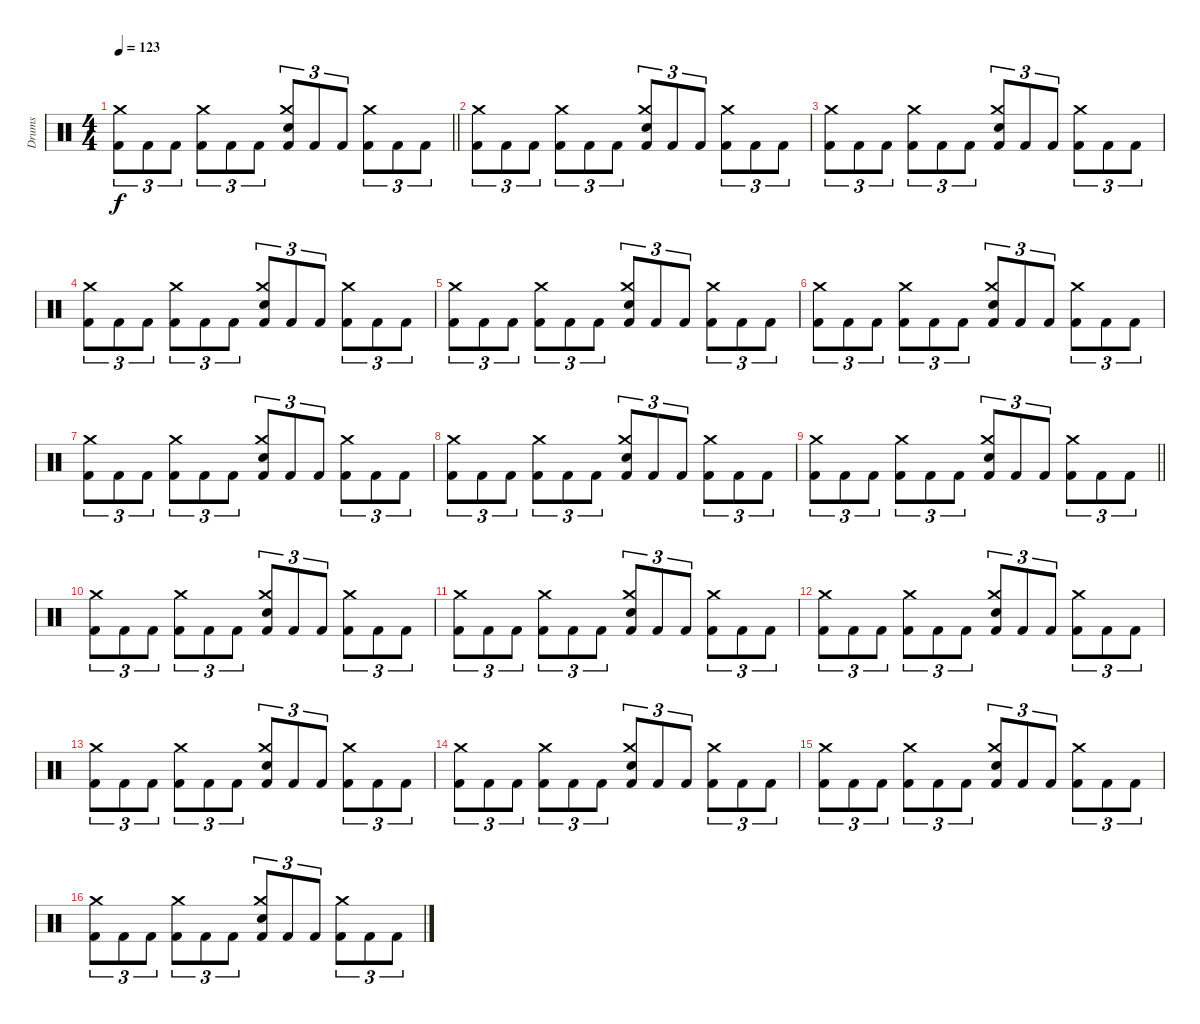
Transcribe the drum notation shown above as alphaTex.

\track ("Drums" "Drums") {instrument percussion}
\staff {score}
\articulation defaults
\ts (4 4)
\tempo 123
\clef neutral
\barLineRight lightlight
\ks c
("Kick (hit) 2" "Crash medium (hit)").8{tu (3 2) dy f} "Kick (hit) 2".8{tu (3 2)} "Kick (hit) 2".8{tu (3 2)} ("Kick (hit) 2" "Crash medium (hit)").8{tu (3 2)} "Kick (hit) 2".8{tu (3 2)} "Kick (hit) 2".8{tu (3 2)} ("Kick (hit) 2" "Snare (hit) 2" "Crash medium (hit)").8{tu (3 2)} "Kick (hit) 2".8{tu (3 2)} "Kick (hit) 2".8{tu (3 2)} ("Kick (hit) 2" "Crash medium (hit)").8{tu (3 2)} "Kick (hit) 2".8{tu (3 2)} "Kick (hit) 2".8{tu (3 2)} |
\section ("" "")
("Kick (hit) 2" "Crash medium (hit)").8{tu (3 2)} "Kick (hit) 2".8{tu (3 2)} "Kick (hit) 2".8{tu (3 2)} ("Kick (hit) 2" "Crash medium (hit)").8{tu (3 2)} "Kick (hit) 2".8{tu (3 2)} "Kick (hit) 2".8{tu (3 2)} ("Kick (hit) 2" "Snare (hit) 2" "Crash medium (hit)").8{tu (3 2)} "Kick (hit) 2".8{tu (3 2)} "Kick (hit) 2".8{tu (3 2)} ("Kick (hit) 2" "Crash medium (hit)").8{tu (3 2)} "Kick (hit) 2".8{tu (3 2)} "Kick (hit) 2".8{tu (3 2)} |
("Kick (hit) 2" "Crash medium (hit)").8{tu (3 2)} "Kick (hit) 2".8{tu (3 2)} "Kick (hit) 2".8{tu (3 2)} ("Kick (hit) 2" "Crash medium (hit)").8{tu (3 2)} "Kick (hit) 2".8{tu (3 2)} "Kick (hit) 2".8{tu (3 2)} ("Kick (hit) 2" "Snare (hit) 2" "Crash medium (hit)").8{tu (3 2)} "Kick (hit) 2".8{tu (3 2)} "Kick (hit) 2".8{tu (3 2)} ("Kick (hit) 2" "Crash medium (hit)").8{tu (3 2)} "Kick (hit) 2".8{tu (3 2)} "Kick (hit) 2".8{tu (3 2)} |
("Kick (hit) 2" "Crash medium (hit)").8{tu (3 2)} "Kick (hit) 2".8{tu (3 2)} "Kick (hit) 2".8{tu (3 2)} ("Kick (hit) 2" "Crash medium (hit)").8{tu (3 2)} "Kick (hit) 2".8{tu (3 2)} "Kick (hit) 2".8{tu (3 2)} ("Kick (hit) 2" "Snare (hit) 2" "Crash medium (hit)").8{tu (3 2)} "Kick (hit) 2".8{tu (3 2)} "Kick (hit) 2".8{tu (3 2)} ("Kick (hit) 2" "Crash medium (hit)").8{tu (3 2)} "Kick (hit) 2".8{tu (3 2)} "Kick (hit) 2".8{tu (3 2)} |
("Kick (hit) 2" "Crash medium (hit)").8{tu (3 2)} "Kick (hit) 2".8{tu (3 2)} "Kick (hit) 2".8{tu (3 2)} ("Kick (hit) 2" "Crash medium (hit)").8{tu (3 2)} "Kick (hit) 2".8{tu (3 2)} "Kick (hit) 2".8{tu (3 2)} ("Kick (hit) 2" "Snare (hit) 2" "Crash medium (hit)").8{tu (3 2)} "Kick (hit) 2".8{tu (3 2)} "Kick (hit) 2".8{tu (3 2)} ("Kick (hit) 2" "Crash medium (hit)").8{tu (3 2)} "Kick (hit) 2".8{tu (3 2)} "Kick (hit) 2".8{tu (3 2)} |
("Kick (hit) 2" "Crash medium (hit)").8{tu (3 2) volume 8} "Kick (hit) 2".8{tu (3 2)} "Kick (hit) 2".8{tu (3 2)} ("Kick (hit) 2" "Crash medium (hit)").8{tu (3 2)} "Kick (hit) 2".8{tu (3 2)} "Kick (hit) 2".8{tu (3 2)} ("Kick (hit) 2" "Snare (hit) 2" "Crash medium (hit)").8{tu (3 2)} "Kick (hit) 2".8{tu (3 2)} "Kick (hit) 2".8{tu (3 2)} ("Kick (hit) 2" "Crash medium (hit)").8{tu (3 2)} "Kick (hit) 2".8{tu (3 2)} "Kick (hit) 2".8{tu (3 2)} |
("Kick (hit) 2" "Crash medium (hit)").8{tu (3 2)} "Kick (hit) 2".8{tu (3 2)} "Kick (hit) 2".8{tu (3 2)} ("Kick (hit) 2" "Crash medium (hit)").8{tu (3 2)} "Kick (hit) 2".8{tu (3 2)} "Kick (hit) 2".8{tu (3 2)} ("Kick (hit) 2" "Snare (hit) 2" "Crash medium (hit)").8{tu (3 2)} "Kick (hit) 2".8{tu (3 2)} "Kick (hit) 2".8{tu (3 2)} ("Kick (hit) 2" "Crash medium (hit)").8{tu (3 2)} "Kick (hit) 2".8{tu (3 2)} "Kick (hit) 2".8{tu (3 2)} |
("Kick (hit) 2" "Crash medium (hit)").8{tu (3 2)} "Kick (hit) 2".8{tu (3 2)} "Kick (hit) 2".8{tu (3 2)} ("Kick (hit) 2" "Crash medium (hit)").8{tu (3 2)} "Kick (hit) 2".8{tu (3 2)} "Kick (hit) 2".8{tu (3 2)} ("Kick (hit) 2" "Snare (hit) 2" "Crash medium (hit)").8{tu (3 2)} "Kick (hit) 2".8{tu (3 2)} "Kick (hit) 2".8{tu (3 2)} ("Kick (hit) 2" "Crash medium (hit)").8{tu (3 2)} "Kick (hit) 2".8{tu (3 2)} "Kick (hit) 2".8{tu (3 2)} |
\barLineRight lightlight
("Kick (hit) 2" "Crash medium (hit)").8{tu (3 2)} "Kick (hit) 2".8{tu (3 2)} "Kick (hit) 2".8{tu (3 2)} ("Kick (hit) 2" "Crash medium (hit)").8{tu (3 2)} "Kick (hit) 2".8{tu (3 2)} "Kick (hit) 2".8{tu (3 2)} ("Kick (hit) 2" "Snare (hit) 2" "Crash medium (hit)").8{tu (3 2)} "Kick (hit) 2".8{tu (3 2)} "Kick (hit) 2".8{tu (3 2)} ("Kick (hit) 2" "Crash medium (hit)").8{tu (3 2)} "Kick (hit) 2".8{tu (3 2)} "Kick (hit) 2".8{tu (3 2)} |
\section ("" "")
("Kick (hit) 2" "Crash medium (hit)").8{tu (3 2) volume 5} "Kick (hit) 2".8{tu (3 2)} "Kick (hit) 2".8{tu (3 2)} ("Kick (hit) 2" "Crash medium (hit)").8{tu (3 2)} "Kick (hit) 2".8{tu (3 2)} "Kick (hit) 2".8{tu (3 2)} ("Kick (hit) 2" "Snare (hit) 2" "Crash medium (hit)").8{tu (3 2)} "Kick (hit) 2".8{tu (3 2)} "Kick (hit) 2".8{tu (3 2)} ("Kick (hit) 2" "Crash medium (hit)").8{tu (3 2)} "Kick (hit) 2".8{tu (3 2)} "Kick (hit) 2".8{tu (3 2)} |
("Kick (hit) 2" "Crash medium (hit)").8{tu (3 2)} "Kick (hit) 2".8{tu (3 2)} "Kick (hit) 2".8{tu (3 2)} ("Kick (hit) 2" "Crash medium (hit)").8{tu (3 2)} "Kick (hit) 2".8{tu (3 2)} "Kick (hit) 2".8{tu (3 2)} ("Kick (hit) 2" "Snare (hit) 2" "Crash medium (hit)").8{tu (3 2)} "Kick (hit) 2".8{tu (3 2)} "Kick (hit) 2".8{tu (3 2)} ("Kick (hit) 2" "Crash medium (hit)").8{tu (3 2)} "Kick (hit) 2".8{tu (3 2)} "Kick (hit) 2".8{tu (3 2)} |
("Kick (hit) 2" "Crash medium (hit)").8{tu (3 2)} "Kick (hit) 2".8{tu (3 2)} "Kick (hit) 2".8{tu (3 2)} ("Kick (hit) 2" "Crash medium (hit)").8{tu (3 2)} "Kick (hit) 2".8{tu (3 2)} "Kick (hit) 2".8{tu (3 2)} ("Kick (hit) 2" "Snare (hit) 2" "Crash medium (hit)").8{tu (3 2)} "Kick (hit) 2".8{tu (3 2)} "Kick (hit) 2".8{tu (3 2)} ("Kick (hit) 2" "Crash medium (hit)").8{tu (3 2)} "Kick (hit) 2".8{tu (3 2)} "Kick (hit) 2".8{tu (3 2)} |
("Kick (hit) 2" "Crash medium (hit)").8{tu (3 2)} "Kick (hit) 2".8{tu (3 2)} "Kick (hit) 2".8{tu (3 2)} ("Kick (hit) 2" "Crash medium (hit)").8{tu (3 2)} "Kick (hit) 2".8{tu (3 2)} "Kick (hit) 2".8{tu (3 2)} ("Kick (hit) 2" "Snare (hit) 2" "Crash medium (hit)").8{tu (3 2)} "Kick (hit) 2".8{tu (3 2)} "Kick (hit) 2".8{tu (3 2)} ("Kick (hit) 2" "Crash medium (hit)").8{tu (3 2)} "Kick (hit) 2".8{tu (3 2)} "Kick (hit) 2".8{tu (3 2)} |
("Kick (hit) 2" "Crash medium (hit)").8{tu (3 2) volume 0} "Kick (hit) 2".8{tu (3 2)} "Kick (hit) 2".8{tu (3 2)} ("Kick (hit) 2" "Crash medium (hit)").8{tu (3 2)} "Kick (hit) 2".8{tu (3 2)} "Kick (hit) 2".8{tu (3 2)} ("Kick (hit) 2" "Snare (hit) 2" "Crash medium (hit)").8{tu (3 2)} "Kick (hit) 2".8{tu (3 2)} "Kick (hit) 2".8{tu (3 2)} ("Kick (hit) 2" "Crash medium (hit)").8{tu (3 2)} "Kick (hit) 2".8{tu (3 2)} "Kick (hit) 2".8{tu (3 2)} |
("Kick (hit) 2" "Crash medium (hit)").8{tu (3 2)} "Kick (hit) 2".8{tu (3 2)} "Kick (hit) 2".8{tu (3 2)} ("Kick (hit) 2" "Crash medium (hit)").8{tu (3 2)} "Kick (hit) 2".8{tu (3 2)} "Kick (hit) 2".8{tu (3 2)} ("Kick (hit) 2" "Snare (hit) 2" "Crash medium (hit)").8{tu (3 2)} "Kick (hit) 2".8{tu (3 2)} "Kick (hit) 2".8{tu (3 2)} ("Kick (hit) 2" "Crash medium (hit)").8{tu (3 2)} "Kick (hit) 2".8{tu (3 2)} "Kick (hit) 2".8{tu (3 2)} |
("Kick (hit) 2" "Crash medium (hit)").8{tu (3 2)} "Kick (hit) 2".8{tu (3 2)} "Kick (hit) 2".8{tu (3 2)} ("Kick (hit) 2" "Crash medium (hit)").8{tu (3 2)} "Kick (hit) 2".8{tu (3 2)} "Kick (hit) 2".8{tu (3 2)} ("Kick (hit) 2" "Snare (hit) 2" "Crash medium (hit)").8{tu (3 2)} "Kick (hit) 2".8{tu (3 2)} "Kick (hit) 2".8{tu (3 2)} ("Kick (hit) 2" "Crash medium (hit)").8{tu (3 2)} "Kick (hit) 2".8{tu (3 2)} "Kick (hit) 2".8{tu (3 2)}
